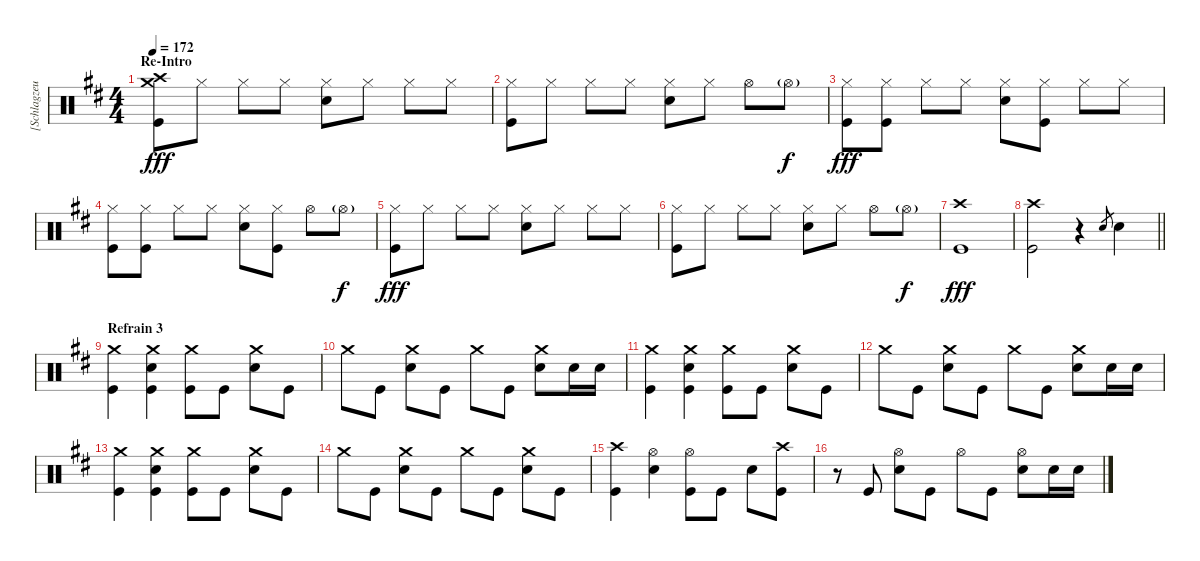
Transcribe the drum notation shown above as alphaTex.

\track ("[Schlagzeug]" "[Schlagzeu") {instrument percussion}
\staff {score}
\articulation defaults
\ts (4 4)
\section ("" "Re-Intro")
\tempo 172
\clef neutral
\ks d
("Crash medium (hit)" "Crash high (hit)" "Kick (hit)").8{dy fff} "Hi-Hat (closed)".8 "Hi-Hat (closed)".8 "Hi-Hat (closed)".8 ("Hi-Hat (closed)" "Electric Snare (hit)").8 "Hi-Hat (closed)".8 "Hi-Hat (closed)".8 "Hi-Hat (closed)".8 |
("Hi-Hat (closed)" "Kick (hit)").8 "Hi-Hat (closed)".8 "Hi-Hat (closed)".8 "Hi-Hat (closed)".8 ("Hi-Hat (closed)" "Electric Snare (hit)").8 "Hi-Hat (closed)".8 "Hi-Hat (open)".8 "Hi-Hat (open)"{g}.8{dy f} |
("Hi-Hat (closed)" "Kick (hit)").8{dy fff} ("Hi-Hat (closed)" "Kick (hit)").8 "Hi-Hat (closed)".8 "Hi-Hat (closed)".8 ("Hi-Hat (closed)" "Electric Snare (hit)").8 ("Hi-Hat (closed)" "Kick (hit)").8 "Hi-Hat (closed)".8 "Hi-Hat (closed)".8 |
("Hi-Hat (closed)" "Kick (hit)").8 ("Hi-Hat (closed)" "Kick (hit)").8 "Hi-Hat (closed)".8 "Hi-Hat (closed)".8 ("Hi-Hat (closed)" "Electric Snare (hit)").8 ("Hi-Hat (closed)" "Kick (hit)").8 "Hi-Hat (open)".8 "Hi-Hat (open)"{g}.8{dy f} |
("Hi-Hat (closed)" "Kick (hit)").8{dy fff} "Hi-Hat (closed)".8 "Hi-Hat (closed)".8 "Hi-Hat (closed)".8 ("Hi-Hat (closed)" "Electric Snare (hit)").8 "Hi-Hat (closed)".8 "Hi-Hat (closed)".8 "Hi-Hat (closed)".8 |
("Hi-Hat (closed)" "Kick (hit)").8 "Hi-Hat (closed)".8 "Hi-Hat (closed)".8 "Hi-Hat (closed)".8 ("Hi-Hat (closed)" "Electric Snare (hit)").8 "Hi-Hat (closed)".8 "Hi-Hat (open)".8 "Hi-Hat (open)"{g}.8{dy f} |
("Crash high (hit)" "Kick (hit)").1{dy fff} |
\barLineRight lightlight
("Crash high (hit)" "Kick (hit)").2 r.4 "Electric Snare (hit)".8{gr} "Electric Snare (hit)".4 |
\section ("" "Refrain 3")
("Crash medium (hit)" "Kick (hit)").4 ("Crash medium (hit)" "Electric Snare (hit)" "Kick (hit)").4 ("Crash medium (hit)" "Kick (hit)").8 "Kick (hit)".8 ("Crash medium (hit)" "Electric Snare (hit)").8 "Kick (hit)".8 |
"Crash medium (hit)".8 "Kick (hit)".8 ("Crash medium (hit)" "Electric Snare (hit)").8 "Kick (hit)".8 "Crash medium (hit)".8 "Kick (hit)".8 ("Crash medium (hit)" "Electric Snare (hit)").8 "Electric Snare (hit)".16 "Electric Snare (hit)".16 |
("Crash medium (hit)" "Kick (hit)").4 ("Crash medium (hit)" "Electric Snare (hit)" "Kick (hit)").4 ("Crash medium (hit)" "Kick (hit)").8 "Kick (hit)".8 ("Crash medium (hit)" "Electric Snare (hit)").8 "Kick (hit)".8 |
"Crash medium (hit)".8 "Kick (hit)".8 ("Crash medium (hit)" "Electric Snare (hit)").8 "Kick (hit)".8 "Crash medium (hit)".8 "Kick (hit)".8 ("Crash medium (hit)" "Electric Snare (hit)").8 "Electric Snare (hit)".16 "Electric Snare (hit)".16 |
("Crash medium (hit)" "Kick (hit)").4 ("Crash medium (hit)" "Electric Snare (hit)" "Kick (hit)").4 ("Crash medium (hit)" "Kick (hit)").8 "Kick (hit)".8 ("Crash medium (hit)" "Electric Snare (hit)").8 "Kick (hit)".8 |
"Crash medium (hit)".8 "Kick (hit)".8 ("Crash medium (hit)" "Electric Snare (hit)").8 "Kick (hit)".8 "Crash medium (hit)".8 "Kick (hit)".8 ("Crash medium (hit)" "Electric Snare (hit)").8 "Kick (hit)".8 |
("Crash high (hit)" "Kick (hit)").4 ("Hi-Hat (open)" "Electric Snare (hit)").4 ("Hi-Hat (open)" "Kick (hit)").8 "Kick (hit)".8 "Electric Snare (hit)".8 ("Crash high (hit)" "Kick (hit)").8 |
r.8 "Kick (hit)".8 ("Hi-Hat (open)" "Electric Snare (hit)").8 "Kick (hit)".8 "Hi-Hat (open)".8 "Kick (hit)".8 ("Hi-Hat (open)" "Electric Snare (hit)").8 "Electric Snare (hit)".16 "Electric Snare (hit)".16
